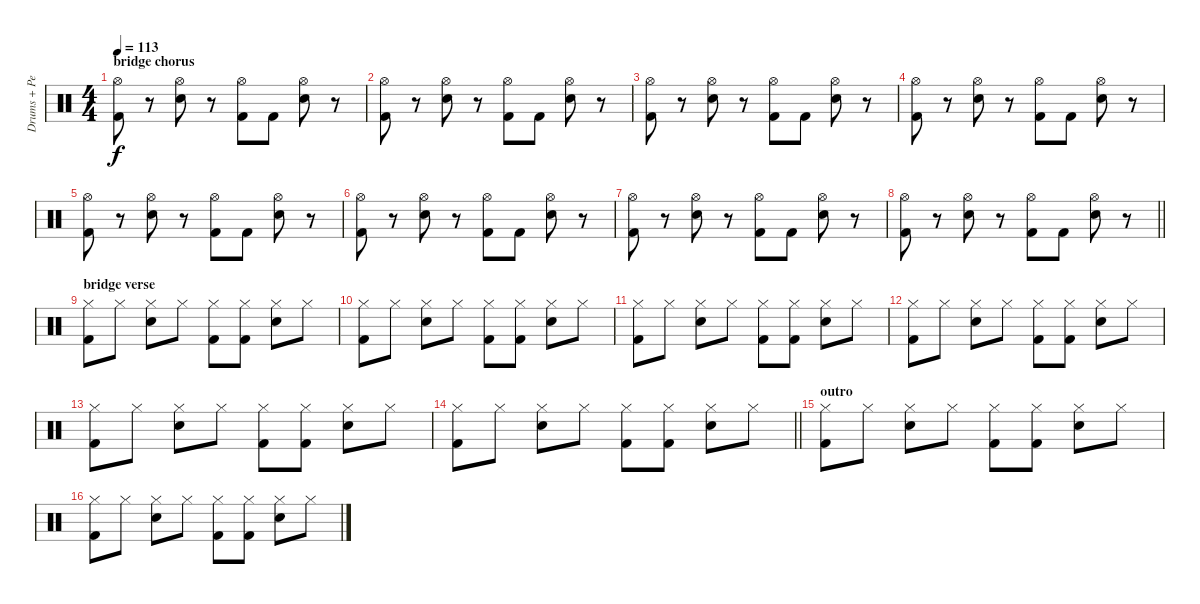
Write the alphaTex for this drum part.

\track ("Drums + Percussion" "Drums + Pe") {instrument percussion}
\staff {score}
\articulation defaults
\ts (4 4)
\section ("" "bridge chorus")
\tempo 113
\clef neutral
\ks c
("Hi-Hat (open)" "Kick (hit) 2").8{dy f} r.8 ("Hi-Hat (open)" "Snare (hit) 2").8 r.8 ("Hi-Hat (open)" "Kick (hit) 2").8 "Kick (hit) 2".8 ("Hi-Hat (open)" "Snare (hit) 2").8 r.8 |
("Hi-Hat (open)" "Kick (hit) 2").8 r.8 ("Hi-Hat (open)" "Snare (hit) 2").8 r.8 ("Hi-Hat (open)" "Kick (hit) 2").8 "Kick (hit) 2".8 ("Hi-Hat (open)" "Snare (hit) 2").8 r.8 |
("Hi-Hat (open)" "Kick (hit) 2").8 r.8 ("Hi-Hat (open)" "Snare (hit) 2").8 r.8 ("Hi-Hat (open)" "Kick (hit) 2").8 "Kick (hit) 2".8 ("Hi-Hat (open)" "Snare (hit) 2").8 r.8 |
("Hi-Hat (open)" "Kick (hit) 2").8 r.8 ("Hi-Hat (open)" "Snare (hit) 2").8 r.8 ("Hi-Hat (open)" "Kick (hit) 2").8 "Kick (hit) 2".8 ("Hi-Hat (open)" "Snare (hit) 2").8 r.8 |
("Hi-Hat (open)" "Kick (hit) 2").8 r.8 ("Hi-Hat (open)" "Snare (hit) 2").8 r.8 ("Hi-Hat (open)" "Kick (hit) 2").8 "Kick (hit) 2".8 ("Hi-Hat (open)" "Snare (hit) 2").8 r.8 |
("Hi-Hat (open)" "Kick (hit) 2").8 r.8 ("Hi-Hat (open)" "Snare (hit) 2").8 r.8 ("Hi-Hat (open)" "Kick (hit) 2").8 "Kick (hit) 2".8 ("Hi-Hat (open)" "Snare (hit) 2").8 r.8 |
("Hi-Hat (open)" "Kick (hit) 2").8 r.8 ("Hi-Hat (open)" "Snare (hit) 2").8 r.8 ("Hi-Hat (open)" "Kick (hit) 2").8 "Kick (hit) 2".8 ("Hi-Hat (open)" "Snare (hit) 2").8 r.8 |
\barLineRight lightlight
("Hi-Hat (open)" "Kick (hit) 2").8 r.8 ("Hi-Hat (open)" "Snare (hit) 2").8 r.8 ("Hi-Hat (open)" "Kick (hit) 2").8 "Kick (hit) 2".8 ("Hi-Hat (open)" "Snare (hit) 2").8 r.8 |
\section ("" "bridge verse")
("Hi-Hat (closed)" "Kick (hit) 2").8 "Hi-Hat (closed)".8 ("Hi-Hat (closed)" "Snare (hit) 2").8 "Hi-Hat (closed)".8 ("Hi-Hat (closed)" "Kick (hit) 2").8 ("Hi-Hat (closed)" "Kick (hit) 2").8 ("Hi-Hat (closed)" "Snare (hit) 2").8 "Hi-Hat (closed)".8 |
("Hi-Hat (closed)" "Kick (hit) 2").8 "Hi-Hat (closed)".8 ("Hi-Hat (closed)" "Snare (hit) 2").8 "Hi-Hat (closed)".8 ("Hi-Hat (closed)" "Kick (hit) 2").8 ("Hi-Hat (closed)" "Kick (hit) 2").8 ("Hi-Hat (closed)" "Snare (hit) 2").8 "Hi-Hat (closed)".8 |
("Hi-Hat (closed)" "Kick (hit) 2").8 "Hi-Hat (closed)".8 ("Hi-Hat (closed)" "Snare (hit) 2").8 "Hi-Hat (closed)".8 ("Hi-Hat (closed)" "Kick (hit) 2").8 ("Hi-Hat (closed)" "Kick (hit) 2").8 ("Hi-Hat (closed)" "Snare (hit) 2").8 "Hi-Hat (closed)".8 |
("Hi-Hat (closed)" "Kick (hit) 2").8 "Hi-Hat (closed)".8 ("Hi-Hat (closed)" "Snare (hit) 2").8 "Hi-Hat (closed)".8 ("Hi-Hat (closed)" "Kick (hit) 2").8 ("Hi-Hat (closed)" "Kick (hit) 2").8 ("Hi-Hat (closed)" "Snare (hit) 2").8 "Hi-Hat (closed)".8 |
("Hi-Hat (closed)" "Kick (hit) 2").8 "Hi-Hat (closed)".8 ("Hi-Hat (closed)" "Snare (hit) 2").8 "Hi-Hat (closed)".8 ("Hi-Hat (closed)" "Kick (hit) 2").8 ("Hi-Hat (closed)" "Kick (hit) 2").8 ("Hi-Hat (closed)" "Snare (hit) 2").8 "Hi-Hat (closed)".8 |
\barLineRight lightlight
("Hi-Hat (closed)" "Kick (hit) 2").8 "Hi-Hat (closed)".8 ("Hi-Hat (closed)" "Snare (hit) 2").8 "Hi-Hat (closed)".8 ("Hi-Hat (closed)" "Kick (hit) 2").8 ("Hi-Hat (closed)" "Kick (hit) 2").8 ("Hi-Hat (closed)" "Snare (hit) 2").8 "Hi-Hat (closed)".8 |
\section ("" "outro")
("Hi-Hat (closed)" "Kick (hit) 2").8 "Hi-Hat (closed)".8 ("Hi-Hat (closed)" "Snare (hit) 2").8 "Hi-Hat (closed)".8 ("Hi-Hat (closed)" "Kick (hit) 2").8 ("Hi-Hat (closed)" "Kick (hit) 2").8 ("Hi-Hat (closed)" "Snare (hit) 2").8 "Hi-Hat (closed)".8 |
("Hi-Hat (closed)" "Kick (hit) 2").8 "Hi-Hat (closed)".8 ("Hi-Hat (closed)" "Snare (hit) 2").8 "Hi-Hat (closed)".8 ("Hi-Hat (closed)" "Kick (hit) 2").8 ("Hi-Hat (closed)" "Kick (hit) 2").8 ("Hi-Hat (closed)" "Snare (hit) 2").8 "Hi-Hat (closed)".8
